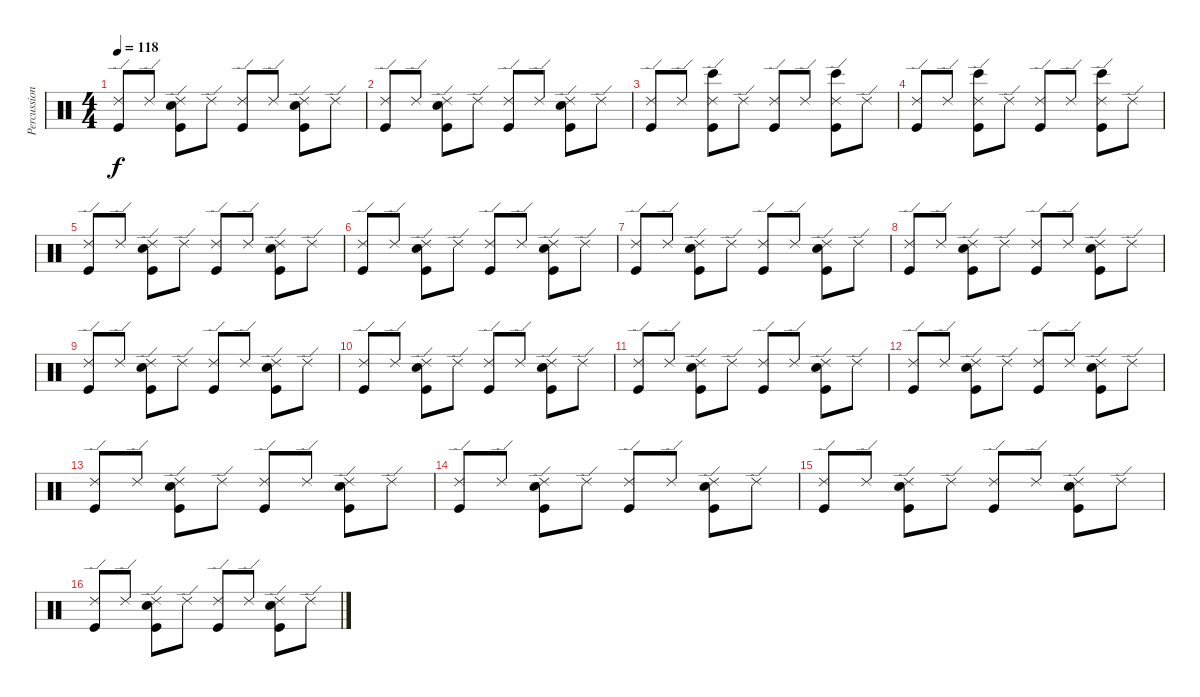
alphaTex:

\track ("Percussion (RSE)" "Percussion") {instrument percussion}
\staff {score}
\articulation defaults
\ts (4 4)
\tempo 118
\clef neutral
\ks c
("Ride (edge) 2" "Kick (hit)").8{dy f} "Ride (edge) 2".8 ("Ride (edge) 2" "Snare (hit) 2" "Kick (hit)").8 "Ride (edge) 2".8 ("Ride (edge) 2" "Kick (hit)").8 "Ride (edge) 2".8 ("Ride (edge) 2" "Snare (hit) 2" "Kick (hit)").8 "Ride (edge) 2".8 |
("Ride (edge) 2" "Kick (hit)").8 "Ride (edge) 2".8 ("Ride (edge) 2" "Snare (hit) 2" "Kick (hit)").8 "Ride (edge) 2".8 ("Ride (edge) 2" "Kick (hit)").8 "Ride (edge) 2".8 ("Ride (edge) 2" "Snare (hit) 2" "Kick (hit)").8 "Ride (edge) 2".8 |
("Ride (edge) 2" "Kick (hit)").8 "Ride (edge) 2".8 ("Ride (edge) 2" "Bongo High (hit)" "Kick (hit)").8 "Ride (edge) 2".8 ("Ride (edge) 2" "Kick (hit)").8 "Ride (edge) 2".8 ("Ride (edge) 2" "Bongo High (hit)" "Kick (hit)").8 "Ride (edge) 2".8 |
("Ride (edge) 2" "Kick (hit)").8 "Ride (edge) 2".8 ("Ride (edge) 2" "Bongo High (hit)" "Kick (hit)").8 "Ride (edge) 2".8 ("Ride (edge) 2" "Kick (hit)").8 "Ride (edge) 2".8 ("Ride (edge) 2" "Bongo High (hit)" "Kick (hit)").8 "Ride (edge) 2".8 |
("Ride (edge) 2" "Kick (hit)").8 "Ride (edge) 2".8 ("Ride (edge) 2" "Snare (hit) 2" "Kick (hit)").8 "Ride (edge) 2".8 ("Ride (edge) 2" "Kick (hit)").8 "Ride (edge) 2".8 ("Ride (edge) 2" "Snare (hit) 2" "Kick (hit)").8 "Ride (edge) 2".8 |
("Ride (edge) 2" "Kick (hit)").8 "Ride (edge) 2".8 ("Ride (edge) 2" "Snare (hit) 2" "Kick (hit)").8 "Ride (edge) 2".8 ("Ride (edge) 2" "Kick (hit)").8 "Ride (edge) 2".8 ("Ride (edge) 2" "Snare (hit) 2" "Kick (hit)").8 "Ride (edge) 2".8 |
("Ride (edge) 2" "Kick (hit)").8 "Ride (edge) 2".8 ("Ride (edge) 2" "Snare (hit) 2" "Kick (hit)").8 "Ride (edge) 2".8 ("Ride (edge) 2" "Kick (hit)").8 "Ride (edge) 2".8 ("Ride (edge) 2" "Snare (hit) 2" "Kick (hit)").8 "Ride (edge) 2".8 |
("Ride (edge) 2" "Kick (hit)").8 "Ride (edge) 2".8 ("Ride (edge) 2" "Snare (hit) 2" "Kick (hit)").8 "Ride (edge) 2".8 ("Ride (edge) 2" "Kick (hit)").8 "Ride (edge) 2".8 ("Ride (edge) 2" "Snare (hit) 2" "Kick (hit)").8 "Ride (edge) 2".8 |
("Ride (edge) 2" "Kick (hit)").8 "Ride (edge) 2".8 ("Ride (edge) 2" "Snare (hit) 2" "Kick (hit)").8 "Ride (edge) 2".8 ("Ride (edge) 2" "Kick (hit)").8 "Ride (edge) 2".8 ("Ride (edge) 2" "Snare (hit) 2" "Kick (hit)").8 "Ride (edge) 2".8 |
("Ride (edge) 2" "Kick (hit)").8 "Ride (edge) 2".8 ("Ride (edge) 2" "Snare (hit) 2" "Kick (hit)").8 "Ride (edge) 2".8 ("Ride (edge) 2" "Kick (hit)").8 "Ride (edge) 2".8 ("Ride (edge) 2" "Snare (hit) 2" "Kick (hit)").8 "Ride (edge) 2".8 |
("Ride (edge) 2" "Kick (hit)").8 "Ride (edge) 2".8 ("Ride (edge) 2" "Snare (hit) 2" "Kick (hit)").8 "Ride (edge) 2".8 ("Ride (edge) 2" "Kick (hit)").8 "Ride (edge) 2".8 ("Ride (edge) 2" "Snare (hit) 2" "Kick (hit)").8 "Ride (edge) 2".8 |
("Ride (edge) 2" "Kick (hit)").8 "Ride (edge) 2".8 ("Ride (edge) 2" "Snare (hit) 2" "Kick (hit)").8 "Ride (edge) 2".8 ("Ride (edge) 2" "Kick (hit)").8 "Ride (edge) 2".8 ("Ride (edge) 2" "Snare (hit) 2" "Kick (hit)").8 "Ride (edge) 2".8 |
("Ride (edge) 2" "Kick (hit)").8 "Ride (edge) 2".8 ("Ride (edge) 2" "Snare (hit) 2" "Kick (hit)").8 "Ride (edge) 2".8 ("Ride (edge) 2" "Kick (hit)").8 "Ride (edge) 2".8 ("Ride (edge) 2" "Snare (hit) 2" "Kick (hit)").8 "Ride (edge) 2".8 |
("Ride (edge) 2" "Kick (hit)").8 "Ride (edge) 2".8 ("Ride (edge) 2" "Snare (hit) 2" "Kick (hit)").8 "Ride (edge) 2".8 ("Ride (edge) 2" "Kick (hit)").8 "Ride (edge) 2".8 ("Ride (edge) 2" "Snare (hit) 2" "Kick (hit)").8 "Ride (edge) 2".8 |
("Ride (edge) 2" "Kick (hit)").8 "Ride (edge) 2".8 ("Ride (edge) 2" "Snare (hit) 2" "Kick (hit)").8 "Ride (edge) 2".8 ("Ride (edge) 2" "Kick (hit)").8 "Ride (edge) 2".8 ("Ride (edge) 2" "Snare (hit) 2" "Kick (hit)").8 "Ride (edge) 2".8 |
("Ride (edge) 2" "Kick (hit)").8 "Ride (edge) 2".8 ("Ride (edge) 2" "Snare (hit) 2" "Kick (hit)").8 "Ride (edge) 2".8 ("Ride (edge) 2" "Kick (hit)").8 "Ride (edge) 2".8 ("Ride (edge) 2" "Snare (hit) 2" "Kick (hit)").8 "Ride (edge) 2".8
